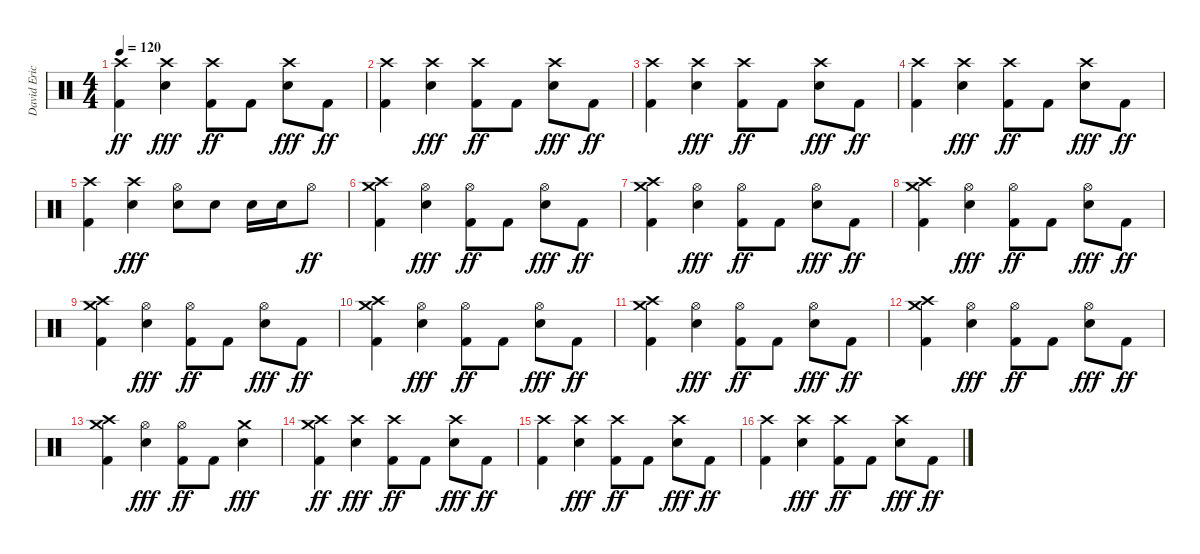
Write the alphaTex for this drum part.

\track ("David Eric Grohl" "David Eric") {instrument percussion}
\staff {score}
\articulation defaults
\ts (4 4)
\tempo 120
\clef neutral
\ks c
("Crash high (hit)" "Kick (hit) 2").4{dy ff} ("Crash high (hit)" "Electric Snare (hit)").4{dy fff} ("Crash high (hit)" "Kick (hit) 2").8{dy ff} "Kick (hit) 2".8 ("Crash high (hit)" "Electric Snare (hit)").8{dy fff} "Kick (hit) 2".8{dy ff} |
("Crash high (hit)" "Kick (hit) 2").4 ("Crash high (hit)" "Electric Snare (hit)").4{dy fff} ("Crash high (hit)" "Kick (hit) 2").8{dy ff} "Kick (hit) 2".8 ("Crash high (hit)" "Electric Snare (hit)").8{dy fff} "Kick (hit) 2".8{dy ff} |
("Crash high (hit)" "Kick (hit) 2").4 ("Crash high (hit)" "Electric Snare (hit)").4{dy fff} ("Crash high (hit)" "Kick (hit) 2").8{dy ff} "Kick (hit) 2".8 ("Crash high (hit)" "Electric Snare (hit)").8{dy fff} "Kick (hit) 2".8{dy ff} |
("Crash high (hit)" "Kick (hit) 2").4 ("Crash high (hit)" "Electric Snare (hit)").4{dy fff} ("Crash high (hit)" "Kick (hit) 2").8{dy ff} "Kick (hit) 2".8 ("Crash high (hit)" "Electric Snare (hit)").8{dy fff} "Kick (hit) 2".8{dy ff} |
("Crash high (hit)" "Kick (hit) 2").4 ("Crash high (hit)" "Electric Snare (hit)").4{dy fff} ("Hi-Hat (open)" "Electric Snare (hit)").8 "Electric Snare (hit)".8 "Electric Snare (hit)".16 "Electric Snare (hit)".16 "Hi-Hat (open)".8{dy ff} |
("Crash medium (hit)" "Crash high (hit)" "Kick (hit) 2").4 ("Hi-Hat (open)" "Electric Snare (hit)").4{dy fff} ("Hi-Hat (open)" "Kick (hit) 2").8{dy ff} "Kick (hit) 2".8 ("Hi-Hat (open)" "Electric Snare (hit)").8{dy fff} "Kick (hit) 2".8{dy ff} |
("Crash medium (hit)" "Crash high (hit)" "Kick (hit) 2").4 ("Hi-Hat (open)" "Electric Snare (hit)").4{dy fff} ("Hi-Hat (open)" "Kick (hit) 2").8{dy ff} "Kick (hit) 2".8 ("Hi-Hat (open)" "Electric Snare (hit)").8{dy fff} "Kick (hit) 2".8{dy ff} |
("Crash medium (hit)" "Crash high (hit)" "Kick (hit) 2").4 ("Hi-Hat (open)" "Electric Snare (hit)").4{dy fff} ("Hi-Hat (open)" "Kick (hit) 2").8{dy ff} "Kick (hit) 2".8 ("Hi-Hat (open)" "Electric Snare (hit)").8{dy fff} "Kick (hit) 2".8{dy ff} |
("Crash medium (hit)" "Crash high (hit)" "Kick (hit) 2").4 ("Hi-Hat (open)" "Electric Snare (hit)").4{dy fff} ("Hi-Hat (open)" "Kick (hit) 2").8{dy ff} "Kick (hit) 2".8 ("Hi-Hat (open)" "Electric Snare (hit)").8{dy fff} "Kick (hit) 2".8{dy ff} |
("Crash medium (hit)" "Crash high (hit)" "Kick (hit) 2").4 ("Hi-Hat (open)" "Electric Snare (hit)").4{dy fff} ("Hi-Hat (open)" "Kick (hit) 2").8{dy ff} "Kick (hit) 2".8 ("Hi-Hat (open)" "Electric Snare (hit)").8{dy fff} "Kick (hit) 2".8{dy ff} |
("Crash medium (hit)" "Crash high (hit)" "Kick (hit) 2").4 ("Hi-Hat (open)" "Electric Snare (hit)").4{dy fff} ("Hi-Hat (open)" "Kick (hit) 2").8{dy ff} "Kick (hit) 2".8 ("Hi-Hat (open)" "Electric Snare (hit)").8{dy fff} "Kick (hit) 2".8{dy ff} |
("Crash medium (hit)" "Crash high (hit)" "Kick (hit) 2").4 ("Hi-Hat (open)" "Electric Snare (hit)").4{dy fff} ("Hi-Hat (open)" "Kick (hit) 2").8{dy ff} "Kick (hit) 2".8 ("Hi-Hat (open)" "Electric Snare (hit)").8{dy fff} "Kick (hit) 2".8{dy ff} |
("Crash medium (hit)" "Crash high (hit)" "Kick (hit) 2").4 ("Hi-Hat (open)" "Electric Snare (hit)").4{dy fff} ("Hi-Hat (open)" "Kick (hit) 2").8{dy ff} "Kick (hit) 2".8 ("Crash medium (hit)" "Electric Snare (hit)").4{dy fff} |
("Crash medium (hit)" "Crash high (hit)" "Kick (hit) 2").4{dy ff} ("Crash high (hit)" "Electric Snare (hit)").4{dy fff} ("Crash high (hit)" "Kick (hit) 2").8{dy ff} "Kick (hit) 2".8 ("Crash high (hit)" "Electric Snare (hit)").8{dy fff} "Kick (hit) 2".8{dy ff} |
("Crash high (hit)" "Kick (hit) 2").4 ("Crash high (hit)" "Electric Snare (hit)").4{dy fff} ("Crash high (hit)" "Kick (hit) 2").8{dy ff} "Kick (hit) 2".8 ("Crash high (hit)" "Electric Snare (hit)").8{dy fff} "Kick (hit) 2".8{dy ff} |
("Crash high (hit)" "Kick (hit) 2").4 ("Crash high (hit)" "Electric Snare (hit)").4{dy fff} ("Crash high (hit)" "Kick (hit) 2").8{dy ff} "Kick (hit) 2".8 ("Crash high (hit)" "Electric Snare (hit)").8{dy fff} "Kick (hit) 2".8{dy ff}
